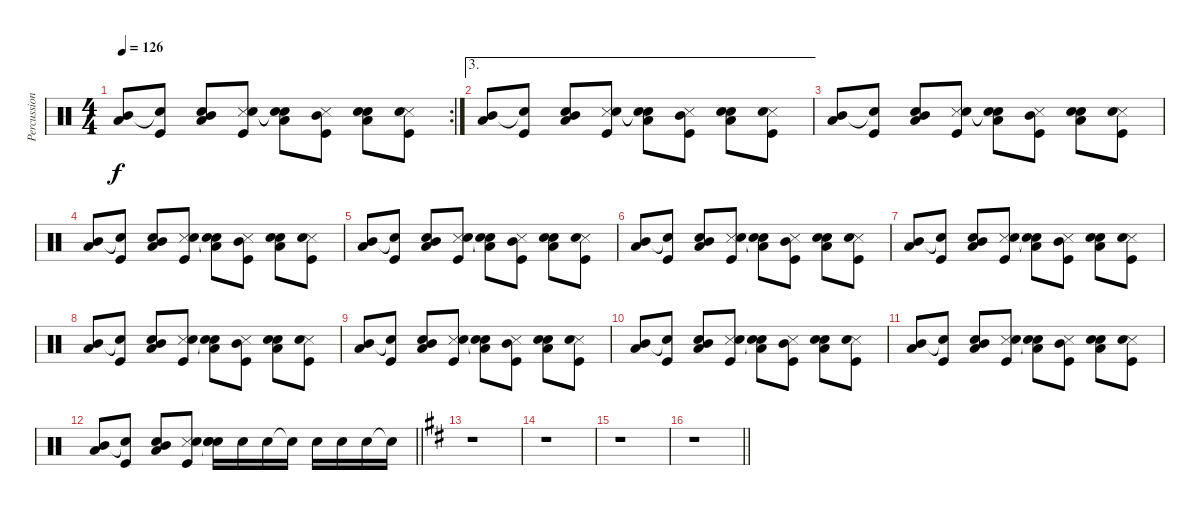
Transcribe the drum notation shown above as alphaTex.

\track ("Percussions" "Percussion") {instrument percussion}
\staff {score}
\articulation defaults
\rc 2
\ts (4 4)
\tempo 126
\clef neutral
\ks c
("Mid Tom (hit)" "Low Floor Tom (hit)").8{dy f} ("Snare (hit)"{t} "Kick (hit)").8 ("Snare (hit) 2" "Mid Tom (hit)" "Low Floor Tom (hit)").8 ("Snare (side stick) 3" "Electric Snare (hit)" "Kick (hit)").8 ("Snare (hit)"{t} "Snare (hit)"{t} "Low Floor Tom (hit)").8 ("Snare (side stick) 3" "Mid Tom (hit)" "Kick (hit)").8 ("Electric Snare (hit)" "Snare (hit) 2" "Low Floor Tom (hit)").8 ("Snare (side stick) 3" "Snare (hit) 2" "Kick (hit)").8 |
\ae 3
("Mid Tom (hit)" "Low Floor Tom (hit)").8 ("Snare (hit)"{t} "Kick (hit)").8 ("Snare (hit) 2" "Mid Tom (hit)" "Low Floor Tom (hit)").8 ("Snare (side stick) 3" "Electric Snare (hit)" "Kick (hit)").8 ("Snare (hit)"{t} "Snare (hit)"{t} "Low Floor Tom (hit)").8 ("Snare (side stick) 3" "Mid Tom (hit)" "Kick (hit)").8 ("Electric Snare (hit)" "Snare (hit) 2" "Low Floor Tom (hit)").8 ("Snare (side stick) 3" "Snare (hit) 2" "Kick (hit)").8 |
("Mid Tom (hit)" "Low Floor Tom (hit)").8 ("Snare (hit)"{t} "Kick (hit)").8 ("Snare (hit) 2" "Mid Tom (hit)" "Low Floor Tom (hit)").8 ("Snare (side stick) 3" "Electric Snare (hit)" "Kick (hit)").8 ("Snare (hit)"{t} "Snare (hit)"{t} "Low Floor Tom (hit)").8 ("Snare (side stick) 3" "Mid Tom (hit)" "Kick (hit)").8 ("Electric Snare (hit)" "Snare (hit) 2" "Low Floor Tom (hit)").8 ("Snare (side stick) 3" "Snare (hit) 2" "Kick (hit)").8 |
("Mid Tom (hit)" "Low Floor Tom (hit)").8 ("Snare (hit)"{t} "Kick (hit)").8 ("Snare (hit) 2" "Mid Tom (hit)" "Low Floor Tom (hit)").8 ("Snare (side stick) 3" "Electric Snare (hit)" "Kick (hit)").8 ("Snare (hit)"{t} "Snare (hit)"{t} "Low Floor Tom (hit)").8 ("Snare (side stick) 3" "Mid Tom (hit)" "Kick (hit)").8 ("Electric Snare (hit)" "Snare (hit) 2" "Low Floor Tom (hit)").8 ("Snare (side stick) 3" "Snare (hit) 2" "Kick (hit)").8 |
("Mid Tom (hit)" "Low Floor Tom (hit)").8 ("Snare (hit)"{t} "Kick (hit)").8 ("Snare (hit) 2" "Mid Tom (hit)" "Low Floor Tom (hit)").8 ("Snare (side stick) 3" "Electric Snare (hit)" "Kick (hit)").8 ("Snare (hit)"{t} "Snare (hit)"{t} "Low Floor Tom (hit)").8 ("Snare (side stick) 3" "Mid Tom (hit)" "Kick (hit)").8 ("Electric Snare (hit)" "Snare (hit) 2" "Low Floor Tom (hit)").8 ("Snare (side stick) 3" "Snare (hit) 2" "Kick (hit)").8 |
("Mid Tom (hit)" "Low Floor Tom (hit)").8 ("Snare (hit)"{t} "Kick (hit)").8 ("Snare (hit) 2" "Mid Tom (hit)" "Low Floor Tom (hit)").8 ("Snare (side stick) 3" "Electric Snare (hit)" "Kick (hit)").8 ("Snare (hit)"{t} "Snare (hit)"{t} "Low Floor Tom (hit)").8 ("Snare (side stick) 3" "Mid Tom (hit)" "Kick (hit)").8 ("Electric Snare (hit)" "Snare (hit) 2" "Low Floor Tom (hit)").8 ("Snare (side stick) 3" "Snare (hit) 2" "Kick (hit)").8 |
("Mid Tom (hit)" "Low Floor Tom (hit)").8 ("Snare (hit)"{t} "Kick (hit)").8 ("Snare (hit) 2" "Mid Tom (hit)" "Low Floor Tom (hit)").8 ("Snare (side stick) 3" "Electric Snare (hit)" "Kick (hit)").8 ("Snare (hit)"{t} "Snare (hit)"{t} "Low Floor Tom (hit)").8 ("Snare (side stick) 3" "Mid Tom (hit)" "Kick (hit)").8 ("Electric Snare (hit)" "Snare (hit) 2" "Low Floor Tom (hit)").8 ("Snare (side stick) 3" "Snare (hit) 2" "Kick (hit)").8 |
("Mid Tom (hit)" "Low Floor Tom (hit)").8 ("Snare (hit)"{t} "Kick (hit)").8 ("Snare (hit) 2" "Mid Tom (hit)" "Low Floor Tom (hit)").8 ("Snare (side stick) 3" "Electric Snare (hit)" "Kick (hit)").8 ("Snare (hit)"{t} "Snare (hit)"{t} "Low Floor Tom (hit)").8 ("Snare (side stick) 3" "Mid Tom (hit)" "Kick (hit)").8 ("Electric Snare (hit)" "Snare (hit) 2" "Low Floor Tom (hit)").8 ("Snare (side stick) 3" "Snare (hit) 2" "Kick (hit)").8 |
("Mid Tom (hit)" "Low Floor Tom (hit)").8 ("Snare (hit)"{t} "Kick (hit)").8 ("Snare (hit) 2" "Mid Tom (hit)" "Low Floor Tom (hit)").8 ("Snare (side stick) 3" "Electric Snare (hit)" "Kick (hit)").8 ("Snare (hit)"{t} "Snare (hit)"{t} "Low Floor Tom (hit)").8 ("Snare (side stick) 3" "Mid Tom (hit)" "Kick (hit)").8 ("Electric Snare (hit)" "Snare (hit) 2" "Low Floor Tom (hit)").8 ("Snare (side stick) 3" "Snare (hit) 2" "Kick (hit)").8 |
("Mid Tom (hit)" "Low Floor Tom (hit)").8 ("Snare (hit)"{t} "Kick (hit)").8 ("Snare (hit) 2" "Mid Tom (hit)" "Low Floor Tom (hit)").8 ("Snare (side stick) 3" "Electric Snare (hit)" "Kick (hit)").8 ("Snare (hit)"{t} "Snare (hit)"{t} "Low Floor Tom (hit)").8 ("Snare (side stick) 3" "Mid Tom (hit)" "Kick (hit)").8 ("Electric Snare (hit)" "Snare (hit) 2" "Low Floor Tom (hit)").8 ("Snare (side stick) 3" "Snare (hit) 2" "Kick (hit)").8 |
("Mid Tom (hit)" "Low Floor Tom (hit)").8 ("Snare (hit)"{t} "Kick (hit)").8 ("Snare (hit) 2" "Mid Tom (hit)" "Low Floor Tom (hit)").8 ("Snare (side stick) 3" "Electric Snare (hit)" "Kick (hit)").8 ("Snare (hit)"{t} "Snare (hit)"{t} "Low Floor Tom (hit)").8 ("Snare (side stick) 3" "Mid Tom (hit)" "Kick (hit)").8 ("Electric Snare (hit)" "Snare (hit) 2" "Low Floor Tom (hit)").8 ("Snare (side stick) 3" "Snare (hit) 2" "Kick (hit)").8 |
\barLineRight lightlight
("Mid Tom (hit)" "Low Floor Tom (hit)").8 ("Snare (hit)"{t} "Kick (hit)").8 ("Snare (hit) 2" "Mid Tom (hit)" "Low Floor Tom (hit)").8 ("Snare (side stick) 3" "Electric Snare (hit)" "Kick (hit)").8 ("Snare (hit)"{t} "Snare (hit)"{t} "Snare (hit) 2").16 "Snare (hit) 2".16 "Snare (hit) 2".16 "Snare (hit)"{t}.16 "Snare (hit) 2".16 "Snare (hit) 2".16 "Snare (hit) 2".16 "Snare (hit)"{t}.16 |
\ks d
r.1 |
r.1 |
r.1 |
\barLineRight lightlight
r.1
